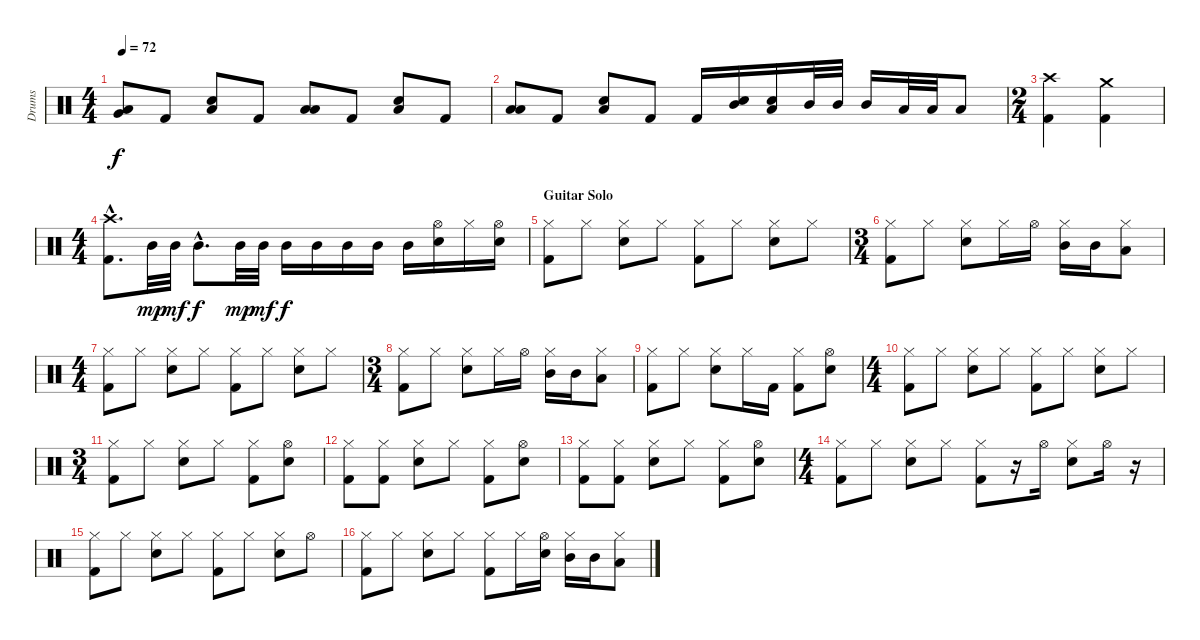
\track ("Drums" "Drums") {instrument percussion}
\staff {score}
\articulation defaults
\ts (4 4)
\tempo 72
\clef neutral
\ks c
("Very Low Tom (hit)" "Low Tom (hit)").8{dy f} "Kick (hit) 2".8 ("Electric Snare (hit)" "Low Tom (hit)").8 "Kick (hit) 2".8 ("Low Tom (hit)" "Low Tom (hit)").8 "Kick (hit) 2".8 ("Electric Snare (hit)" "Low Tom (hit)").8 "Kick (hit) 2".8 |
("Low Tom (hit)" "Low Tom (hit)").8 "Kick (hit) 2".8 ("Electric Snare (hit)" "Low Tom (hit)").8 "Kick (hit) 2".8 "Kick (hit) 2".16 ("Mid Tom (hit)" "Electric Snare (hit)").16 ("Low Tom (hit)" "Electric Snare (hit)").16 "Mid Tom (hit)".32 "Mid Tom (hit)".32 "Mid Tom (hit)".16 "Low Tom (hit)".32 "Low Tom (hit)".32 "Low Tom (hit)".8 |
\ts (2 4)
("Crash high (hit)" "Kick (hit) 2").4 ("Crash medium (hit)" "Kick (hit) 2").4 |
\ts (4 4)
("Crash high (hit)"{hac} "Kick (hit) 2"{hac}).8{d} "Mid Tom (hit)".32{dy mp} "Mid Tom (hit)".32{dy mf} "Mid Tom (hit)"{hac}.8{d dy f} "Mid Tom (hit)".32{dy mp} "Mid Tom (hit)".32{dy mf} "Mid Tom (hit)".16{dy f} "Mid Tom (hit)".16 "Mid Tom (hit)".16 "Mid Tom (hit)".16 "Mid Tom (hit)".16 ("Hi-Hat (open)" "Electric Snare (hit)").16 "Hi-Hat (closed)".16 ("Hi-Hat (open)" "Electric Snare (hit)").16 |
\section ("" "Guitar Solo")
("Hi-Hat (closed)" "Kick (hit) 2").8 "Hi-Hat (closed)".8 ("Hi-Hat (closed)" "Electric Snare (hit)").8 "Hi-Hat (closed)".8 ("Hi-Hat (closed)" "Kick (hit) 2").8 "Hi-Hat (closed)".8 ("Hi-Hat (closed)" "Electric Snare (hit)").8 "Hi-Hat (closed)".8 |
\ts (3 4)
("Hi-Hat (closed)" "Kick (hit) 2").8 "Hi-Hat (closed)".8 ("Hi-Hat (closed)" "Electric Snare (hit)").8 "Hi-Hat (closed)".16 "Hi-Hat (open)".16 ("Hi-Hat (closed)" "Mid Tom (hit)").16 "Mid Tom (hit)".16 ("Hi-Hat (closed)" "Low Tom (hit)").8 |
\ts (4 4)
("Hi-Hat (closed)" "Kick (hit) 2").8 "Hi-Hat (closed)".8 ("Hi-Hat (closed)" "Electric Snare (hit)").8 "Hi-Hat (closed)".8 ("Hi-Hat (closed)" "Kick (hit) 2").8 "Hi-Hat (closed)".8 ("Hi-Hat (closed)" "Electric Snare (hit)").8 "Hi-Hat (closed)".8 |
\ts (3 4)
("Hi-Hat (closed)" "Kick (hit) 2").8 "Hi-Hat (closed)".8 ("Hi-Hat (closed)" "Electric Snare (hit)").8 "Hi-Hat (closed)".16 "Hi-Hat (open)".16 ("Hi-Hat (closed)" "Mid Tom (hit)").16 "Mid Tom (hit)".16 ("Hi-Hat (closed)" "Low Tom (hit)").8 |
("Hi-Hat (closed)" "Kick (hit) 2").8 "Hi-Hat (closed)".8 ("Hi-Hat (closed)" "Electric Snare (hit)").8 "Hi-Hat (closed)".16 "Kick (hit) 2".16 ("Hi-Hat (closed)" "Kick (hit) 2").8 ("Hi-Hat (open)" "Electric Snare (hit)").8 |
\ts (4 4)
("Hi-Hat (closed)" "Kick (hit) 2").8 "Hi-Hat (closed)".8 ("Hi-Hat (closed)" "Electric Snare (hit)").8 "Hi-Hat (closed)".8 ("Hi-Hat (closed)" "Kick (hit) 2").8 "Hi-Hat (closed)".8 ("Hi-Hat (closed)" "Electric Snare (hit)").8 "Hi-Hat (closed)".8 |
\ts (3 4)
("Hi-Hat (closed)" "Kick (hit) 2").8 "Hi-Hat (closed)".8 ("Hi-Hat (closed)" "Electric Snare (hit)").8 "Hi-Hat (closed)".8 ("Hi-Hat (closed)" "Kick (hit) 2").8 ("Hi-Hat (open)" "Electric Snare (hit)").8 |
("Hi-Hat (closed)" "Kick (hit) 2").8 ("Hi-Hat (closed)" "Kick (hit) 2").8 ("Hi-Hat (closed)" "Electric Snare (hit)").8 "Hi-Hat (closed)".8 ("Hi-Hat (closed)" "Kick (hit) 2").8 ("Hi-Hat (open)" "Electric Snare (hit)").8 |
("Hi-Hat (closed)" "Kick (hit) 2").8 ("Hi-Hat (closed)" "Kick (hit) 2").8 ("Hi-Hat (closed)" "Electric Snare (hit)").8 "Hi-Hat (closed)".8 ("Hi-Hat (closed)" "Kick (hit) 2").8 ("Hi-Hat (open)" "Electric Snare (hit)").8 |
\ts (4 4)
("Hi-Hat (closed)" "Kick (hit) 2").8 "Hi-Hat (closed)".8 ("Hi-Hat (closed)" "Electric Snare (hit)").8 "Hi-Hat (closed)".8 ("Hi-Hat (closed)" "Kick (hit) 2").8 r.16 "Hi-Hat (open)".16 ("Hi-Hat (closed)" "Electric Snare (hit)").8 "Hi-Hat (open)".16 r.16 |
("Hi-Hat (closed)" "Kick (hit) 2").8 "Hi-Hat (closed)".8 ("Hi-Hat (closed)" "Electric Snare (hit)").8 "Hi-Hat (closed)".8 ("Hi-Hat (closed)" "Kick (hit) 2").8 "Hi-Hat (closed)".8 ("Hi-Hat (closed)" "Electric Snare (hit)").8 "Hi-Hat (open)".8 |
("Hi-Hat (closed)" "Kick (hit) 2").8 "Hi-Hat (closed)".8 ("Hi-Hat (closed)" "Electric Snare (hit)").8 "Hi-Hat (closed)".8 ("Hi-Hat (closed)" "Kick (hit) 2").8 "Hi-Hat (closed)".16 ("Hi-Hat (open)" "Electric Snare (hit)").16 ("Hi-Hat (closed)" "Mid Tom (hit)").16 "Mid Tom (hit)".16 ("Hi-Hat (closed)" "Low Tom (hit)").8
